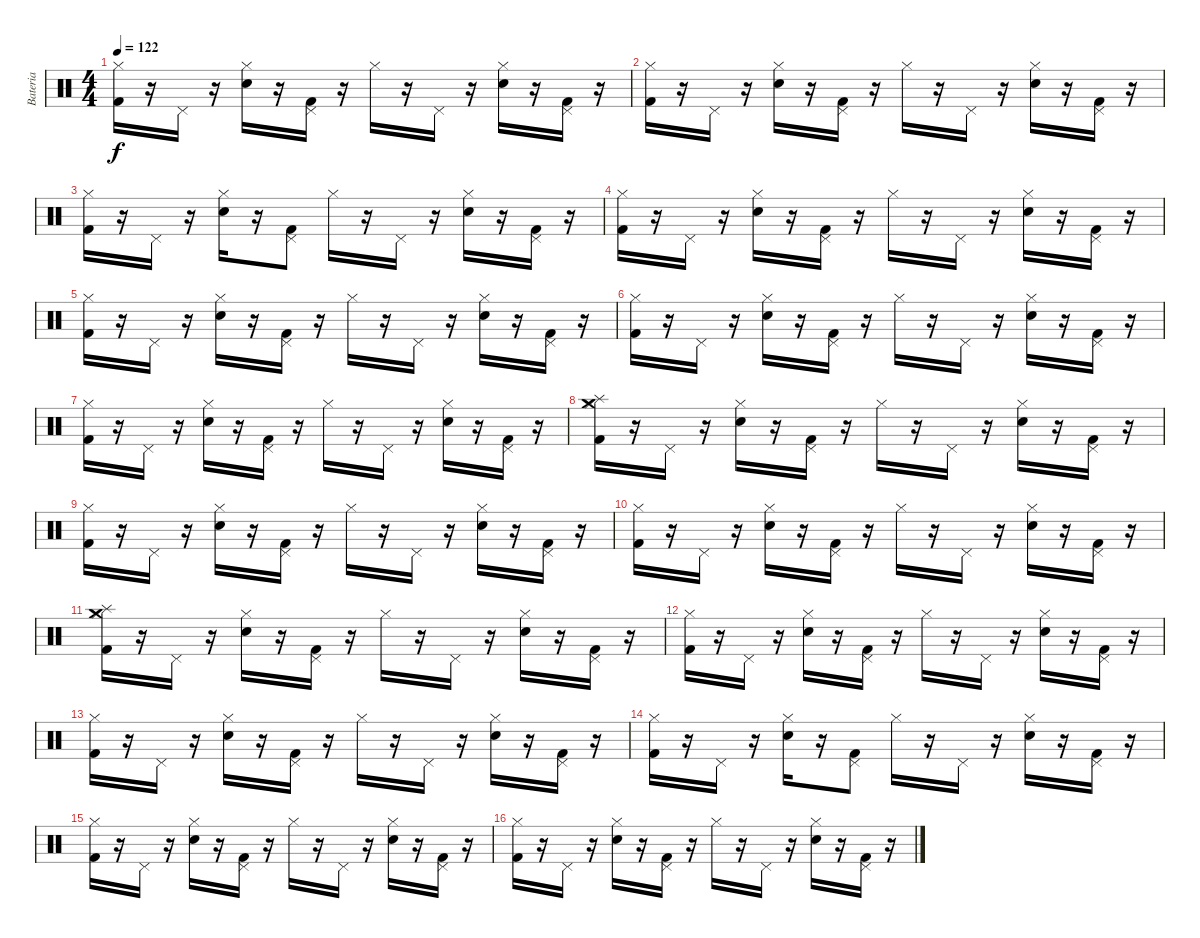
\track ("Bateria" "Bateria") {instrument percussion}
\staff {score}
\articulation defaults
\ts (4 4)
\tempo 122
\clef neutral
\ks c
("Kick (hit) 2" "Hi-Hat (closed)").16{dy f} r.16 "Pedal Hi-Hat (hit)".16 r.16 ("Snare (hit) 2" "Hi-Hat (closed)").16 r.16 ("Pedal Hi-Hat (hit)" "Kick (hit) 2").16 r.16 "Hi-Hat (closed)".16 r.16 "Pedal Hi-Hat (hit)".16 r.16 ("Snare (hit) 2" "Hi-Hat (closed)").16 r.16 ("Kick (hit) 2" "Pedal Hi-Hat (hit)").16 r.16 |
("Kick (hit) 2" "Hi-Hat (closed)").16 r.16 "Pedal Hi-Hat (hit)".16 r.16 ("Snare (hit) 2" "Hi-Hat (closed)").16 r.16 ("Kick (hit) 2" "Pedal Hi-Hat (hit)").16 r.16 "Hi-Hat (closed)".16 r.16 "Pedal Hi-Hat (hit)".16 r.16 ("Hi-Hat (closed)" "Snare (hit) 2").16 r.16 ("Pedal Hi-Hat (hit)" "Kick (hit) 2").16 r.16 |
("Kick (hit) 2" "Hi-Hat (closed)").16 r.16 "Pedal Hi-Hat (hit)".16 r.16 ("Snare (hit) 2" "Hi-Hat (closed)").16 r.16 ("Kick (hit) 2" "Pedal Hi-Hat (hit)").8 "Hi-Hat (closed)".16 r.16 "Pedal Hi-Hat (hit)".16 r.16 ("Snare (hit) 2" "Hi-Hat (closed)").16 r.16 ("Pedal Hi-Hat (hit)" "Kick (hit) 2").16 r.16 |
("Hi-Hat (closed)" "Kick (hit) 2").16 r.16 "Pedal Hi-Hat (hit)".16 r.16 ("Snare (hit) 2" "Hi-Hat (closed)").16 r.16 ("Kick (hit) 2" "Pedal Hi-Hat (hit)").16 r.16 "Hi-Hat (closed)".16 r.16 "Pedal Hi-Hat (hit)".16 r.16 ("Snare (hit) 2" "Hi-Hat (closed)").16 r.16 ("Kick (hit) 2" "Pedal Hi-Hat (hit)").16 r.16 |
("Hi-Hat (closed)" "Kick (hit) 2").16 r.16 "Pedal Hi-Hat (hit)".16 r.16 ("Hi-Hat (closed)" "Snare (hit) 2").16 r.16 ("Pedal Hi-Hat (hit)" "Kick (hit) 2").16 r.16 "Hi-Hat (closed)".16 r.16 "Pedal Hi-Hat (hit)".16 r.16 ("Snare (hit) 2" "Hi-Hat (closed)").16 r.16 ("Kick (hit) 2" "Pedal Hi-Hat (hit)").16 r.16 |
("Kick (hit) 2" "Hi-Hat (closed)").16 r.16 "Pedal Hi-Hat (hit)".16 r.16 ("Hi-Hat (closed)" "Snare (hit) 2").16 r.16 ("Pedal Hi-Hat (hit)" "Kick (hit) 2").16 r.16 "Hi-Hat (closed)".16 r.16 "Pedal Hi-Hat (hit)".16 r.16 ("Snare (hit) 2" "Hi-Hat (closed)").16 r.16 ("Kick (hit) 2" "Pedal Hi-Hat (hit)").16 r.16 |
("Kick (hit) 2" "Hi-Hat (closed)").16 r.16 "Pedal Hi-Hat (hit)".16 r.16 ("Snare (hit) 2" "Hi-Hat (closed)").16 r.16 ("Kick (hit) 2" "Pedal Hi-Hat (hit)").16 r.16 "Hi-Hat (closed)".16 r.16 "Pedal Hi-Hat (hit)".16 r.16 ("Hi-Hat (closed)" "Snare (hit) 2").16 r.16 ("Kick (hit) 2" "Pedal Hi-Hat (hit)").16 r.16 |
("Kick (hit) 2" "Splash (hit)" "Crash medium (hit)" "Hi-Hat (closed)").16 r.16 "Pedal Hi-Hat (hit)".16 r.16 ("Snare (hit) 2" "Hi-Hat (closed)").16 r.16 ("Kick (hit) 2" "Pedal Hi-Hat (hit)").16 r.16 "Hi-Hat (closed)".16 r.16 "Pedal Hi-Hat (hit)".16 r.16 ("Hi-Hat (closed)" "Snare (hit) 2").16 r.16 ("Pedal Hi-Hat (hit)" "Kick (hit) 2").16 r.16 |
("Hi-Hat (closed)" "Kick (hit) 2").16 r.16 "Pedal Hi-Hat (hit)".16 r.16 ("Snare (hit) 2" "Hi-Hat (closed)").16 r.16 ("Kick (hit) 2" "Pedal Hi-Hat (hit)").16 r.16 "Hi-Hat (closed)".16 r.16 "Pedal Hi-Hat (hit)".16 r.16 ("Snare (hit) 2" "Hi-Hat (closed)").16 r.16 ("Kick (hit) 2" "Pedal Hi-Hat (hit)").16 r.16 |
("Hi-Hat (closed)" "Kick (hit) 2").16 r.16 "Pedal Hi-Hat (hit)".16 r.16 ("Hi-Hat (closed)" "Snare (hit) 2").16 r.16 ("Kick (hit) 2" "Pedal Hi-Hat (hit)").16 r.16 "Hi-Hat (closed)".16 r.16 "Pedal Hi-Hat (hit)".16 r.16 ("Snare (hit) 2" "Hi-Hat (closed)").16 r.16 ("Kick (hit) 2" "Pedal Hi-Hat (hit)").16 r.16 |
("Kick (hit) 2" "Splash (hit)" "Crash medium (hit)" "Hi-Hat (closed)").16 r.16 "Pedal Hi-Hat (hit)".16 r.16 ("Hi-Hat (closed)" "Snare (hit) 2").16 r.16 ("Pedal Hi-Hat (hit)" "Kick (hit) 2").16 r.16 "Hi-Hat (closed)".16 r.16 "Pedal Hi-Hat (hit)".16 r.16 ("Snare (hit) 2" "Hi-Hat (closed)").16 r.16 ("Kick (hit) 2" "Pedal Hi-Hat (hit)").16 r.16 |
("Kick (hit) 2" "Hi-Hat (closed)").16 r.16 "Pedal Hi-Hat (hit)".16 r.16 ("Snare (hit) 2" "Hi-Hat (closed)").16 r.16 ("Pedal Hi-Hat (hit)" "Kick (hit) 2").16 r.16 "Hi-Hat (closed)".16 r.16 "Pedal Hi-Hat (hit)".16 r.16 ("Snare (hit) 2" "Hi-Hat (closed)").16 r.16 ("Kick (hit) 2" "Pedal Hi-Hat (hit)").16 r.16 |
("Kick (hit) 2" "Hi-Hat (closed)").16 r.16 "Pedal Hi-Hat (hit)".16 r.16 ("Snare (hit) 2" "Hi-Hat (closed)").16 r.16 ("Kick (hit) 2" "Pedal Hi-Hat (hit)").16 r.16 "Hi-Hat (closed)".16 r.16 "Pedal Hi-Hat (hit)".16 r.16 ("Hi-Hat (closed)" "Snare (hit) 2").16 r.16 ("Pedal Hi-Hat (hit)" "Kick (hit) 2").16 r.16 |
("Kick (hit) 2" "Hi-Hat (closed)").16 r.16 "Pedal Hi-Hat (hit)".16 r.16 ("Snare (hit) 2" "Hi-Hat (closed)").16 r.16 ("Kick (hit) 2" "Pedal Hi-Hat (hit)").8 "Hi-Hat (closed)".16 r.16 "Pedal Hi-Hat (hit)".16 r.16 ("Snare (hit) 2" "Hi-Hat (closed)").16 r.16 ("Pedal Hi-Hat (hit)" "Kick (hit) 2").16 r.16 |
("Hi-Hat (closed)" "Kick (hit) 2").16 r.16 "Pedal Hi-Hat (hit)".16 r.16 ("Snare (hit) 2" "Hi-Hat (closed)").16 r.16 ("Kick (hit) 2" "Pedal Hi-Hat (hit)").16 r.16 "Hi-Hat (closed)".16 r.16 "Pedal Hi-Hat (hit)".16 r.16 ("Snare (hit) 2" "Hi-Hat (closed)").16 r.16 ("Kick (hit) 2" "Pedal Hi-Hat (hit)").16 r.16 |
("Hi-Hat (closed)" "Kick (hit) 2").16 r.16 "Pedal Hi-Hat (hit)".16 r.16 ("Hi-Hat (closed)" "Snare (hit) 2").16 r.16 ("Pedal Hi-Hat (hit)" "Kick (hit) 2").16 r.16 "Hi-Hat (closed)".16 r.16 "Pedal Hi-Hat (hit)".16 r.16 ("Snare (hit) 2" "Hi-Hat (closed)").16 r.16 ("Kick (hit) 2" "Pedal Hi-Hat (hit)").16 r.16
